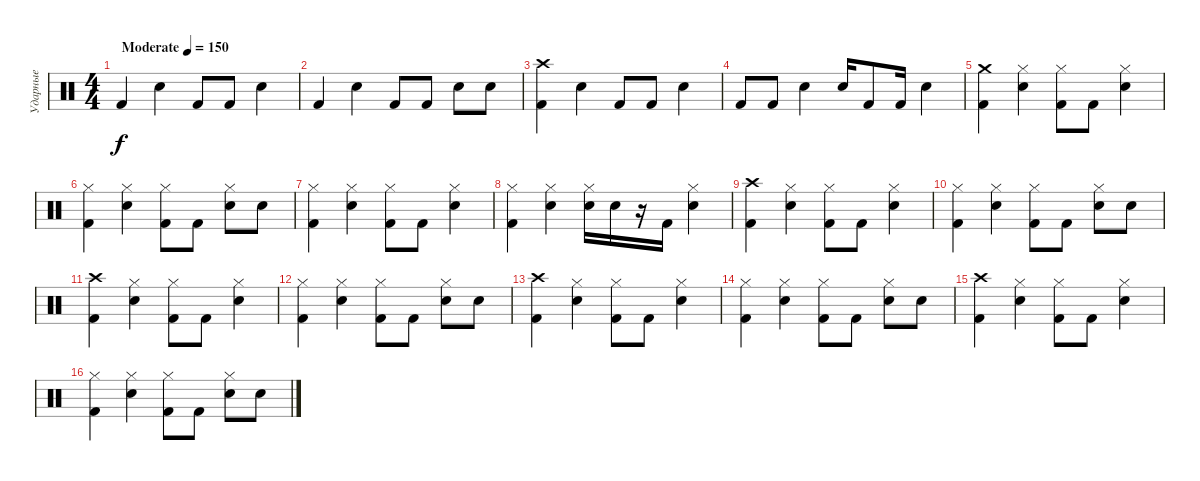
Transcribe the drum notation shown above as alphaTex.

\track ("Ударные" "Ударные") {instrument percussion}
\staff {score}
\articulation defaults
\ts (4 4)
\tempo (150 "Moderate")
\clef neutral
\ks c "Kick (hit) 2".4{dy f} "Electric Snare (hit)".4 "Kick (hit) 2".8 "Kick (hit) 2".8 "Electric Snare (hit)".4
|
"Kick (hit) 2".4 "Electric Snare (hit)".4 "Kick (hit) 2".8 "Kick (hit) 2".8 "Electric Snare (hit)".8 "Electric Snare (hit)".8 |
("Kick (hit) 2" "Crash high (hit)").4 "Electric Snare (hit)".4 "Kick (hit) 2".8 "Kick (hit) 2".8 "Electric Snare (hit)".4 |
"Kick (hit) 2".8 "Kick (hit) 2".8 "Electric Snare (hit)".4 "Electric Snare (hit)".16 "Kick (hit) 2".8 "Kick (hit) 2".16 "Electric Snare (hit)".4 |
("Kick (hit) 2" "Crash medium (hit)").4 ("Hi-Hat (closed)" "Electric Snare (hit)").4 ("Hi-Hat (closed)" "Kick (hit) 2").8 "Kick (hit) 2".8 ("Hi-Hat (closed)" "Electric Snare (hit)").4 |
("Hi-Hat (closed)" "Kick (hit) 2").4 ("Hi-Hat (closed)" "Electric Snare (hit)").4 ("Hi-Hat (closed)" "Kick (hit) 2").8 "Kick (hit) 2".8 ("Hi-Hat (closed)" "Electric Snare (hit)").8 "Electric Snare (hit)".8 |
("Hi-Hat (closed)" "Kick (hit) 2").4 ("Hi-Hat (closed)" "Electric Snare (hit)").4 ("Hi-Hat (closed)" "Kick (hit) 2").8 "Kick (hit) 2".8 ("Hi-Hat (closed)" "Electric Snare (hit)").4 |
("Hi-Hat (closed)" "Kick (hit) 2").4 ("Hi-Hat (closed)" "Electric Snare (hit)").4 ("Hi-Hat (closed)" "Electric Snare (hit)").16 "Electric Snare (hit)".16 r.16 "Kick (hit) 2".16 ("Hi-Hat (closed)" "Electric Snare (hit)").4 |
("Crash high (hit)" "Kick (hit) 2").4 ("Hi-Hat (closed)" "Electric Snare (hit)").4 ("Hi-Hat (closed)" "Kick (hit) 2").8 "Kick (hit) 2".8 ("Hi-Hat (closed)" "Electric Snare (hit)").4 |
("Hi-Hat (closed)" "Kick (hit) 2").4 ("Hi-Hat (closed)" "Electric Snare (hit)").4 ("Hi-Hat (closed)" "Kick (hit) 2").8 "Kick (hit) 2".8 ("Hi-Hat (closed)" "Electric Snare (hit)").8 "Electric Snare (hit)".8 |
("Crash high (hit)" "Kick (hit) 2").4 ("Hi-Hat (closed)" "Electric Snare (hit)").4 ("Hi-Hat (closed)" "Kick (hit) 2").8 "Kick (hit) 2".8 ("Hi-Hat (closed)" "Electric Snare (hit)").4 |
("Hi-Hat (closed)" "Kick (hit) 2").4 ("Hi-Hat (closed)" "Electric Snare (hit)").4 ("Hi-Hat (closed)" "Kick (hit) 2").8 "Kick (hit) 2".8 ("Hi-Hat (closed)" "Electric Snare (hit)").8 "Electric Snare (hit)".8 |
("Crash high (hit)" "Kick (hit) 2").4 ("Hi-Hat (closed)" "Electric Snare (hit)").4 ("Hi-Hat (closed)" "Kick (hit) 2").8 "Kick (hit) 2".8 ("Hi-Hat (closed)" "Electric Snare (hit)").4 |
("Hi-Hat (closed)" "Kick (hit) 2").4 ("Hi-Hat (closed)" "Electric Snare (hit)").4 ("Hi-Hat (closed)" "Kick (hit) 2").8 "Kick (hit) 2".8 ("Hi-Hat (closed)" "Electric Snare (hit)").8 "Electric Snare (hit)".8 |
("Crash high (hit)" "Kick (hit) 2").4 ("Hi-Hat (closed)" "Electric Snare (hit)").4 ("Hi-Hat (closed)" "Kick (hit) 2").8 "Kick (hit) 2".8 ("Hi-Hat (closed)" "Electric Snare (hit)").4 |
("Hi-Hat (closed)" "Kick (hit) 2").4 ("Hi-Hat (closed)" "Electric Snare (hit)").4 ("Hi-Hat (closed)" "Kick (hit) 2").8 "Kick (hit) 2".8 ("Hi-Hat (closed)" "Electric Snare (hit)").8 "Electric Snare (hit)".8
